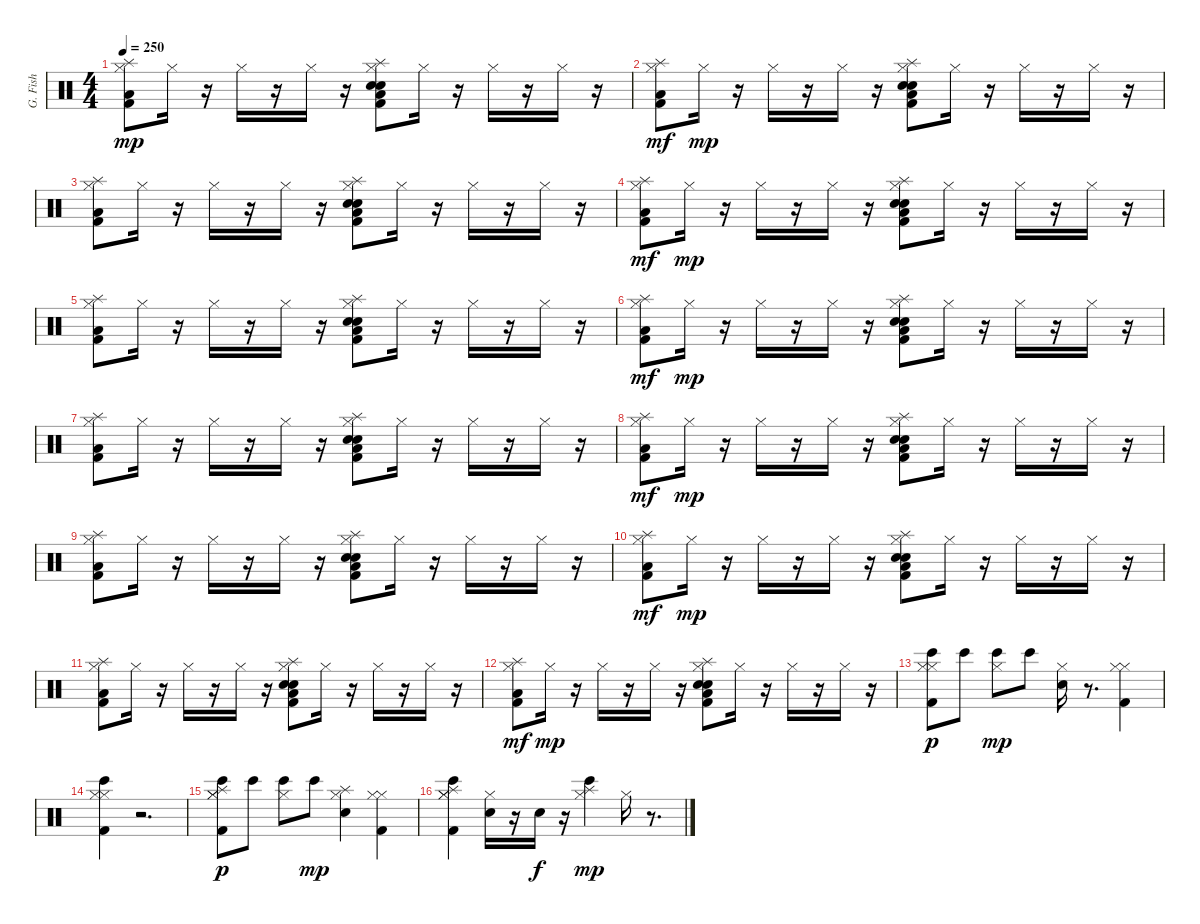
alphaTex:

\track ("G. Fish" "G. Fish") {instrument percussion}
\staff {score}
\articulation defaults
\ts (4 4)
\tempo 250
\clef neutral
\ks c
("Kick (hit) 2" "Splash (hit)" "Hi-Hat (closed)" "Low Floor Tom (hit)").8{dy mp} "Hi-Hat (closed)".16 r.16 "Hi-Hat (closed)".16 r.16 "Hi-Hat (closed)".16 r.16 ("Snare (hit) 2" "Kick (hit) 2" "Splash (hit)" "Electric Snare (hit)" "Low Floor Tom (hit)" "Hi-Hat (closed)").8 "Hi-Hat (closed)".16 r.16 "Hi-Hat (closed)".16 r.16 "Hi-Hat (closed)".16 r.16 |
("Hi-Hat (closed)" "Low Floor Tom (hit)" "Kick (hit) 2" "Splash (hit)").8{dy mf} "Hi-Hat (closed)".16{dy mp} r.16 "Hi-Hat (closed)".16 r.16 "Hi-Hat (closed)".16 r.16 ("Snare (hit) 2" "Electric Snare (hit)" "Kick (hit) 2" "Splash (hit)" "Low Floor Tom (hit)" "Hi-Hat (closed)").8 "Hi-Hat (closed)".16 r.16 "Hi-Hat (closed)".16 r.16 "Hi-Hat (closed)".16 r.16 |
("Kick (hit) 2" "Splash (hit)" "Hi-Hat (closed)" "Low Floor Tom (hit)").8 "Hi-Hat (closed)".16 r.16 "Hi-Hat (closed)".16 r.16 "Hi-Hat (closed)".16 r.16 ("Snare (hit) 2" "Kick (hit) 2" "Splash (hit)" "Electric Snare (hit)" "Low Floor Tom (hit)" "Hi-Hat (closed)").8 "Hi-Hat (closed)".16 r.16 "Hi-Hat (closed)".16 r.16 "Hi-Hat (closed)".16 r.16 |
("Hi-Hat (closed)" "Low Floor Tom (hit)" "Kick (hit) 2" "Splash (hit)").8{dy mf} "Hi-Hat (closed)".16{dy mp} r.16 "Hi-Hat (closed)".16 r.16 "Hi-Hat (closed)".16 r.16 ("Snare (hit) 2" "Electric Snare (hit)" "Kick (hit) 2" "Splash (hit)" "Low Floor Tom (hit)" "Hi-Hat (closed)").8 "Hi-Hat (closed)".16 r.16 "Hi-Hat (closed)".16 r.16 "Hi-Hat (closed)".16 r.16 |
("Kick (hit) 2" "Splash (hit)" "Hi-Hat (closed)" "Low Floor Tom (hit)").8 "Hi-Hat (closed)".16 r.16 "Hi-Hat (closed)".16 r.16 "Hi-Hat (closed)".16 r.16 ("Snare (hit) 2" "Kick (hit) 2" "Splash (hit)" "Electric Snare (hit)" "Low Floor Tom (hit)" "Hi-Hat (closed)").8 "Hi-Hat (closed)".16 r.16 "Hi-Hat (closed)".16 r.16 "Hi-Hat (closed)".16 r.16 |
("Hi-Hat (closed)" "Low Floor Tom (hit)" "Kick (hit) 2" "Splash (hit)").8{dy mf} "Hi-Hat (closed)".16{dy mp} r.16 "Hi-Hat (closed)".16 r.16 "Hi-Hat (closed)".16 r.16 ("Snare (hit) 2" "Electric Snare (hit)" "Kick (hit) 2" "Splash (hit)" "Low Floor Tom (hit)" "Hi-Hat (closed)").8 "Hi-Hat (closed)".16 r.16 "Hi-Hat (closed)".16 r.16 "Hi-Hat (closed)".16 r.16 |
("Kick (hit) 2" "Splash (hit)" "Hi-Hat (closed)" "Low Floor Tom (hit)").8 "Hi-Hat (closed)".16 r.16 "Hi-Hat (closed)".16 r.16 "Hi-Hat (closed)".16 r.16 ("Snare (hit) 2" "Kick (hit) 2" "Splash (hit)" "Electric Snare (hit)" "Low Floor Tom (hit)" "Hi-Hat (closed)").8 "Hi-Hat (closed)".16 r.16 "Hi-Hat (closed)".16 r.16 "Hi-Hat (closed)".16 r.16 |
("Hi-Hat (closed)" "Low Floor Tom (hit)" "Kick (hit) 2" "Splash (hit)").8{dy mf} "Hi-Hat (closed)".16{dy mp} r.16 "Hi-Hat (closed)".16 r.16 "Hi-Hat (closed)".16 r.16 ("Snare (hit) 2" "Electric Snare (hit)" "Kick (hit) 2" "Splash (hit)" "Low Floor Tom (hit)" "Hi-Hat (closed)").8 "Hi-Hat (closed)".16 r.16 "Hi-Hat (closed)".16 r.16 "Hi-Hat (closed)".16 r.16 |
("Kick (hit) 2" "Splash (hit)" "Hi-Hat (closed)" "Low Floor Tom (hit)").8 "Hi-Hat (closed)".16 r.16 "Hi-Hat (closed)".16 r.16 "Hi-Hat (closed)".16 r.16 ("Snare (hit) 2" "Kick (hit) 2" "Splash (hit)" "Electric Snare (hit)" "Low Floor Tom (hit)" "Hi-Hat (closed)").8 "Hi-Hat (closed)".16 r.16 "Hi-Hat (closed)".16 r.16 "Hi-Hat (closed)".16 r.16 |
("Hi-Hat (closed)" "Low Floor Tom (hit)" "Kick (hit) 2" "Splash (hit)").8{dy mf} "Hi-Hat (closed)".16{dy mp} r.16 "Hi-Hat (closed)".16 r.16 "Hi-Hat (closed)".16 r.16 ("Snare (hit) 2" "Electric Snare (hit)" "Kick (hit) 2" "Splash (hit)" "Low Floor Tom (hit)" "Hi-Hat (closed)").8 "Hi-Hat (closed)".16 r.16 "Hi-Hat (closed)".16 r.16 "Hi-Hat (closed)".16 r.16 |
("Kick (hit) 2" "Splash (hit)" "Hi-Hat (closed)" "Low Floor Tom (hit)").8 "Hi-Hat (closed)".16 r.16 "Hi-Hat (closed)".16 r.16 "Hi-Hat (closed)".16 r.16 ("Snare (hit) 2" "Kick (hit) 2" "Splash (hit)" "Electric Snare (hit)" "Low Floor Tom (hit)" "Hi-Hat (closed)").8 "Hi-Hat (closed)".16 r.16 "Hi-Hat (closed)".16 r.16 "Hi-Hat (closed)".16 r.16 |
("Hi-Hat (closed)" "Low Floor Tom (hit)" "Kick (hit) 2" "Splash (hit)").8{dy mf} "Hi-Hat (closed)".16{dy mp} r.16 "Hi-Hat (closed)".16 r.16 "Hi-Hat (closed)".16 r.16 ("Snare (hit) 2" "Electric Snare (hit)" "Kick (hit) 2" "Splash (hit)" "Low Floor Tom (hit)" "Hi-Hat (closed)").8 "Hi-Hat (closed)".16 r.16 "Hi-Hat (closed)".16 r.16 "Hi-Hat (closed)".16 r.16 |
("Kick (hit) 2" "Hi-Hat (closed)" "Hi-Hat (closed)" "Bongo High (hit)").8{dy p} "Bongo High (hit)".8 ("Bongo High (hit)" "Hi-Hat (closed)").8{dy mp} "Bongo High (hit)".8 ("Electric Snare (hit)" "Hi-Hat (closed)").16 r.8{d} ("Hi-Hat (closed)" "Hi-Hat (closed)" "Kick (hit) 2").4 |
("Hi-Hat (closed)" "Hi-Hat (closed)" "Bongo High (hit)" "Kick (hit) 2").4 r.2{d} |
("Splash (hit)" "Kick (hit) 2" "Hi-Hat (closed)" "Bongo High (hit)" "Hi-Hat (closed)").8{dy p} "Bongo High (hit)".8 ("Hi-Hat (closed)" "Bongo High (hit)").8 "Bongo High (hit)".8{dy mp} ("Splash (hit)" "Hi-Hat (closed)" "Electric Snare (hit)").4 ("Kick (hit) 2" "Hi-Hat (closed)" "Hi-Hat (closed)").4 |
("Splash (hit)" "Kick (hit) 2" "Hi-Hat (closed)" "Hi-Hat (closed)" "Bongo High (hit)").4 ("Electric Snare (hit)" "Hi-Hat (closed)").16 r.16 "Electric Snare (hit)".16{dy f} r.16 ("Splash (hit)" "Hi-Hat (closed)" "Bongo High (hit)").4{dy mp} "Hi-Hat (closed)".16 r.8{d}
